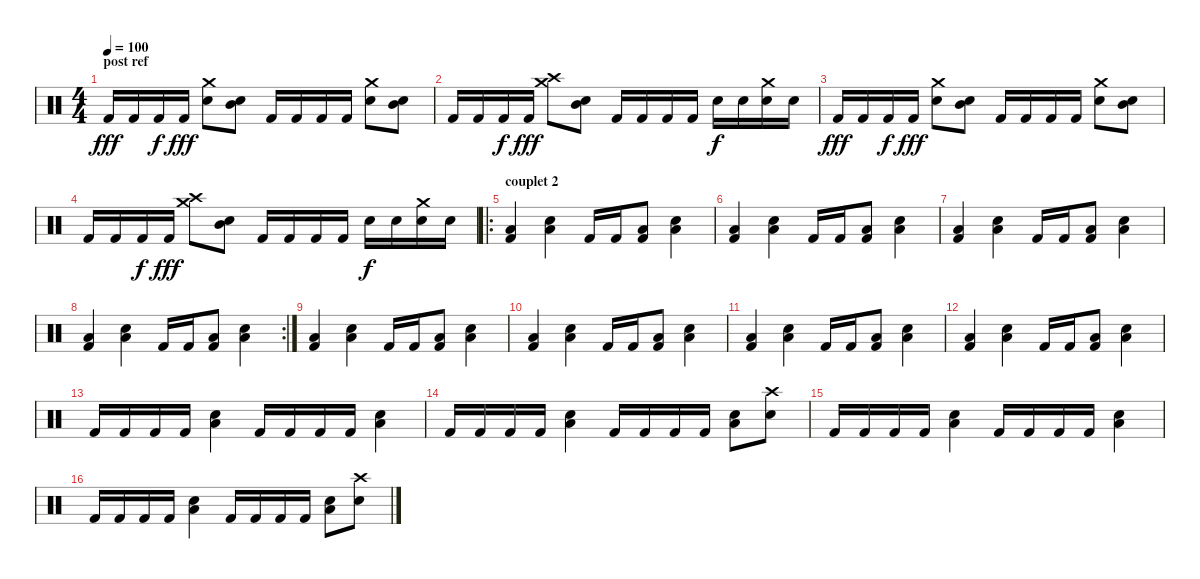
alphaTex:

\track "" {instrument percussion}
\staff {score}
\articulation defaults
\ts (4 4)
\section ("" "post ref")
\tempo 100
\clef neutral
\ks c "Kick (hit) 2".16{dy fff} "Kick (hit) 2".16 "Kick (hit) 2".16{dy f} "Kick (hit) 2".16{dy fff}
("Electric Snare (hit)" "Crash medium (hit)").8 ("Snare (hit) 2" "Mid Tom (hit)").8 "Kick (hit) 2".16 "Kick (hit) 2".16 "Kick (hit) 2".16 "Kick (hit) 2".16 ("Electric Snare (hit)" "Crash medium (hit)").8 ("Snare (hit) 2" "Mid Tom (hit)").8 |
"Kick (hit) 2".16 "Kick (hit) 2".16 "Kick (hit) 2".16{dy f} "Kick (hit) 2".16{dy fff} ("Crash high (hit)" "Crash medium (hit)").8 ("Snare (hit) 2" "Mid Tom (hit)").8 "Kick (hit) 2".16 "Kick (hit) 2".16 "Kick (hit) 2".16 "Kick (hit) 2".16 "Electric Snare (hit)".16{dy f} "Electric Snare (hit)".16 ("Electric Snare (hit)" "Crash medium (hit)").16 "Electric Snare (hit)".16 |
"Kick (hit) 2".16{dy fff} "Kick (hit) 2".16 "Kick (hit) 2".16{dy f} "Kick (hit) 2".16{dy fff} ("Electric Snare (hit)" "Crash medium (hit)").8 ("Snare (hit) 2" "Mid Tom (hit)").8 "Kick (hit) 2".16 "Kick (hit) 2".16 "Kick (hit) 2".16 "Kick (hit) 2".16 ("Electric Snare (hit)" "Crash medium (hit)").8 ("Snare (hit) 2" "Mid Tom (hit)").8 |
"Kick (hit) 2".16 "Kick (hit) 2".16 "Kick (hit) 2".16{dy f} "Kick (hit) 2".16{dy fff} ("Crash high (hit)" "Crash medium (hit)").8 ("Snare (hit) 2" "Mid Tom (hit)").8 "Kick (hit) 2".16 "Kick (hit) 2".16 "Kick (hit) 2".16 "Kick (hit) 2".16 "Electric Snare (hit)".16{dy f} "Electric Snare (hit)".16 ("Electric Snare (hit)" "Crash medium (hit)").16 "Electric Snare (hit)".16 |
\ro
\section ("" "couplet 2")
("Low Tom (hit)" "Kick (hit) 2").4 ("Low Tom (hit)" "Electric Snare (hit)").4 "Kick (hit) 2".16 "Kick (hit) 2".16 ("Low Tom (hit)" "Kick (hit) 2").8 ("Low Tom (hit)" "Electric Snare (hit)").4 |
("Low Tom (hit)" "Kick (hit) 2").4 ("Low Tom (hit)" "Electric Snare (hit)").4 "Kick (hit) 2".16 "Kick (hit) 2".16 ("Low Tom (hit)" "Kick (hit) 2").8 ("Low Tom (hit)" "Electric Snare (hit)").4 |
("Low Tom (hit)" "Kick (hit) 2").4 ("Low Tom (hit)" "Electric Snare (hit)").4 "Kick (hit) 2".16 "Kick (hit) 2".16 ("Low Tom (hit)" "Kick (hit) 2").8 ("Low Tom (hit)" "Electric Snare (hit)").4 |
\rc 2
("Low Tom (hit)" "Kick (hit) 2").4 ("Low Tom (hit)" "Electric Snare (hit)").4 "Kick (hit) 2".16 "Kick (hit) 2".16 ("Low Tom (hit)" "Kick (hit) 2").8 ("Low Tom (hit)" "Electric Snare (hit)").4 |
("Low Tom (hit)" "Kick (hit) 2").4 ("Low Tom (hit)" "Electric Snare (hit)").4 "Kick (hit) 2".16 "Kick (hit) 2".16 ("Low Tom (hit)" "Kick (hit) 2").8 ("Low Tom (hit)" "Electric Snare (hit)").4 |
("Low Tom (hit)" "Kick (hit) 2").4 ("Low Tom (hit)" "Electric Snare (hit)").4 "Kick (hit) 2".16 "Kick (hit) 2".16 ("Low Tom (hit)" "Kick (hit) 2").8 ("Low Tom (hit)" "Electric Snare (hit)").4 |
("Low Tom (hit)" "Kick (hit) 2").4 ("Low Tom (hit)" "Electric Snare (hit)").4 "Kick (hit) 2".16 "Kick (hit) 2".16 ("Low Tom (hit)" "Kick (hit) 2").8 ("Low Tom (hit)" "Electric Snare (hit)").4 |
("Low Tom (hit)" "Kick (hit) 2").4 ("Low Tom (hit)" "Electric Snare (hit)").4 "Kick (hit) 2".16 "Kick (hit) 2".16 ("Low Tom (hit)" "Kick (hit) 2").8 ("Low Tom (hit)" "Electric Snare (hit)").4 |
"Kick (hit) 2".16 "Kick (hit) 2".16 "Kick (hit) 2".16 "Kick (hit) 2".16 ("Low Tom (hit)" "Electric Snare (hit)").4 "Kick (hit) 2".16 "Kick (hit) 2".16 "Kick (hit) 2".16 "Kick (hit) 2".16 ("Low Tom (hit)" "Electric Snare (hit)").4 |
"Kick (hit) 2".16 "Kick (hit) 2".16 "Kick (hit) 2".16 "Kick (hit) 2".16 ("Low Tom (hit)" "Electric Snare (hit)").4 "Kick (hit) 2".16 "Kick (hit) 2".16 "Kick (hit) 2".16 "Kick (hit) 2".16 ("Low Tom (hit)" "Electric Snare (hit)").8 ("Crash high (hit)" "Electric Snare (hit)").8 |
"Kick (hit) 2".16 "Kick (hit) 2".16 "Kick (hit) 2".16 "Kick (hit) 2".16 ("Low Tom (hit)" "Electric Snare (hit)").4 "Kick (hit) 2".16 "Kick (hit) 2".16 "Kick (hit) 2".16 "Kick (hit) 2".16 ("Low Tom (hit)" "Electric Snare (hit)").4 |
"Kick (hit) 2".16 "Kick (hit) 2".16 "Kick (hit) 2".16 "Kick (hit) 2".16 ("Low Tom (hit)" "Electric Snare (hit)").4 "Kick (hit) 2".16 "Kick (hit) 2".16 "Kick (hit) 2".16 "Kick (hit) 2".16 ("Low Tom (hit)" "Electric Snare (hit)").8 ("Crash high (hit)" "Electric Snare (hit)").8
